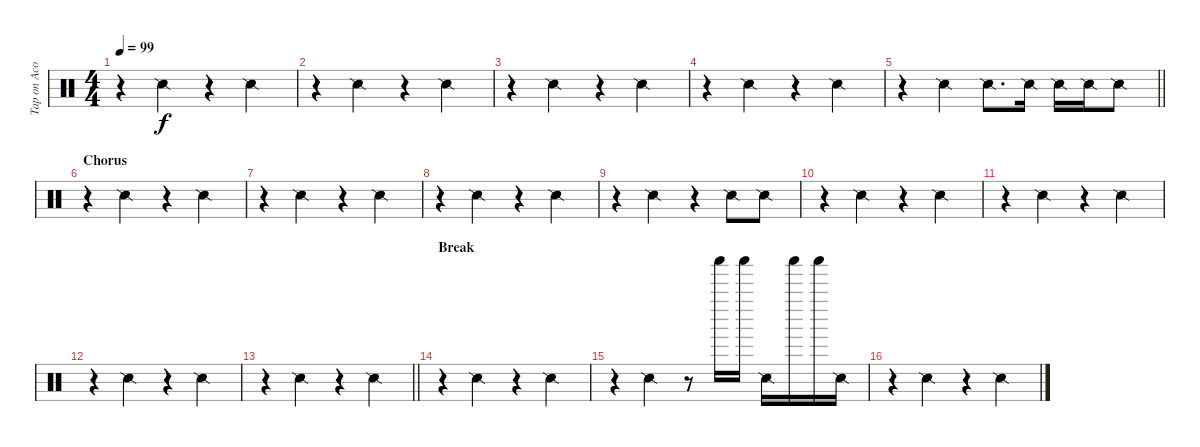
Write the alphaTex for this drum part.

\track ("Tap on Acoustic" "Tap on Aco") {instrument percussion}
\staff {score}
\articulation defaults
\ts (4 4)
\tempo 99
\clef neutral
\ks c
r.4{dy f} "Snare (side stick) 2".4 r.4 "Snare (side stick) 2".4 |
r.4 "Snare (side stick) 2".4 r.4 "Snare (side stick) 2".4 |
r.4 "Snare (side stick) 2".4 r.4 "Snare (side stick) 2".4 |
r.4 "Snare (side stick) 2".4 r.4 "Snare (side stick) 2".4 |
\barLineRight lightlight
r.4 "Snare (side stick) 2".4 "Snare (side stick) 2".8{d} "Snare (side stick) 2".16 "Snare (side stick) 2".16 "Snare (side stick) 2".16 "Snare (side stick) 2".8 |
\section ("" "Chorus")
r.4 "Snare (side stick) 2".4 r.4 "Snare (side stick) 2".4 |
r.4 "Snare (side stick) 2".4 r.4 "Snare (side stick) 2".4 |
r.4 "Snare (side stick) 2".4 r.4 "Snare (side stick) 2".4 |
r.4 "Snare (side stick) 2".4 r.4 "Snare (side stick) 2".8 "Snare (side stick) 2".8 |
r.4 "Snare (side stick) 2".4 r.4 "Snare (side stick) 2".4 |
r.4 "Snare (side stick) 2".4 r.4 "Snare (side stick) 2".4 |
r.4 "Snare (side stick) 2".4 r.4 "Snare (side stick) 2".4 |
\barLineRight lightlight
r.4 "Snare (side stick) 2".4 r.4 "Snare (side stick) 2".4 |
\section ("" "Break")
r.4 "Snare (side stick) 2".4 r.4 "Snare (side stick) 2".4 |
r.4 "Snare (side stick) 2".4 r.8 "Shaker (hit)".16 "Shaker (hit)".16 "Snare (side stick) 2".16 "Shaker (hit)".16 "Shaker (hit)".16 "Snare (side stick) 2".16 |
r.4 "Snare (side stick) 2".4 r.4 "Snare (side stick) 2".4
